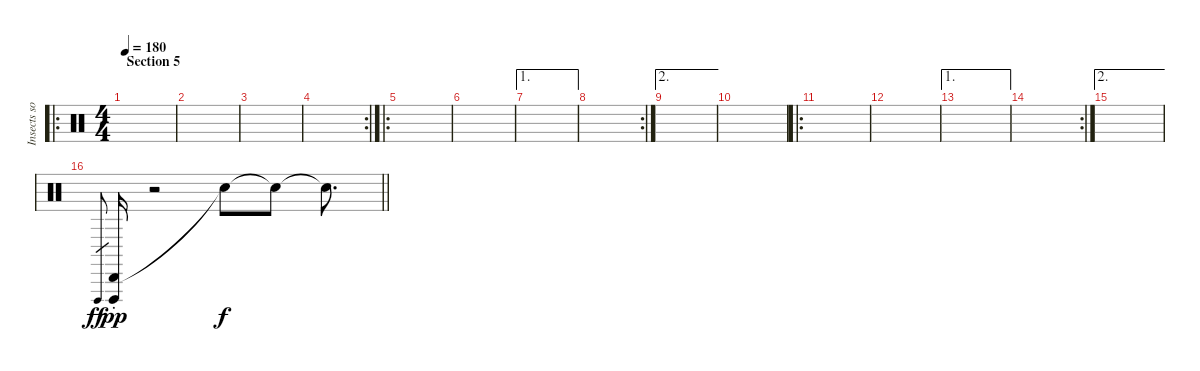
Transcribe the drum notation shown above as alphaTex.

\track ("Insects sound FX" "Insects so") {instrument percussion}
\staff {score}
\articulation defaults
\ro
\ts (4 4)
\section ("" "Section 5")
\tempo 180
\clef neutral
\ks c
|
|
|
\rc 2
|
\ro
|
|
\ae 1
|
\rc 2
|
\ae 2
|
|
\ro
|
|
\ae 1
|
\rc 2
|
\ae 2
|
\barLineRight lightlight "Vibraslap (hit)"{sl}.8{gr dy ff}
("Cabasa (hit)"{st} "Vibraslap (hit)"{st}).16{dy pp volume 7} r.2 "Snare (hit)"{t}.8{dy f} "Snare (hit)"{t}.8 "Snare (hit)"{t}.8{d}
